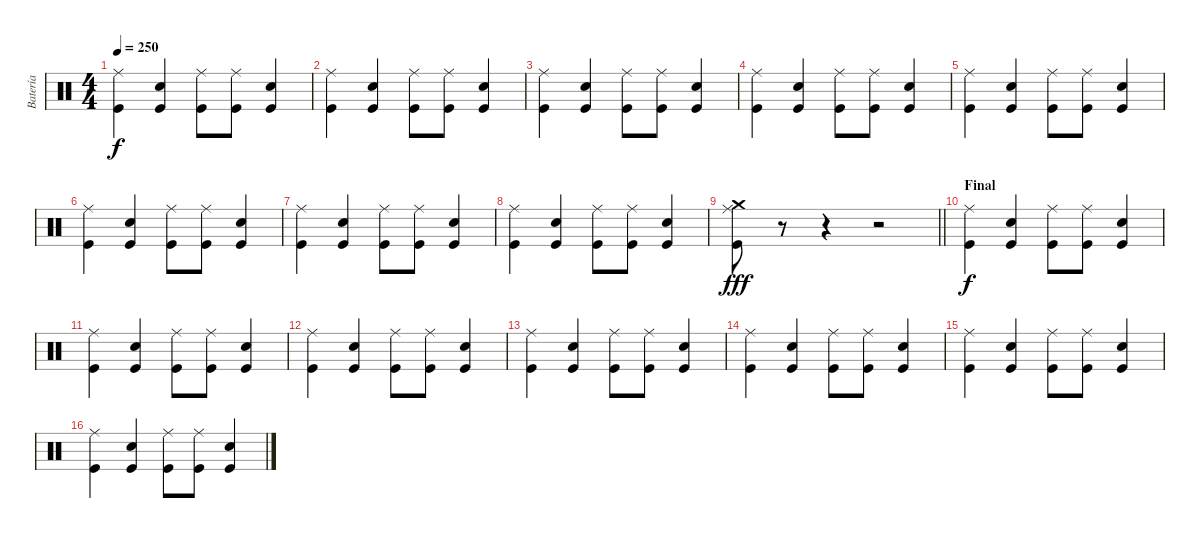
\track ("Batería" "Batería") {instrument percussion}
\staff {score}
\articulation defaults
\ts (4 4)
\tempo 250
\clef neutral
\ks c
("Ride (middle)" "Kick (hit)").4{dy f} ("Electric Snare (hit)" "Kick (hit)").4 ("Ride (middle)" "Kick (hit)").8 ("Ride (middle)" "Kick (hit)").8 ("Electric Snare (hit)" "Kick (hit)").4 |
("Ride (middle)" "Kick (hit)").4 ("Electric Snare (hit)" "Kick (hit)").4 ("Ride (middle)" "Kick (hit)").8 ("Ride (middle)" "Kick (hit)").8 ("Electric Snare (hit)" "Kick (hit)").4 |
("Ride (middle)" "Kick (hit)").4 ("Electric Snare (hit)" "Kick (hit)").4 ("Ride (middle)" "Kick (hit)").8 ("Ride (middle)" "Kick (hit)").8 ("Electric Snare (hit)" "Kick (hit)").4 |
("Ride (middle)" "Kick (hit)").4 ("Electric Snare (hit)" "Kick (hit)").4 ("Ride (middle)" "Kick (hit)").8 ("Ride (middle)" "Kick (hit)").8 ("Electric Snare (hit)" "Kick (hit)").4 |
("Ride (middle)" "Kick (hit)").4 ("Electric Snare (hit)" "Kick (hit)").4 ("Ride (middle)" "Kick (hit)").8 ("Ride (middle)" "Kick (hit)").8 ("Electric Snare (hit)" "Kick (hit)").4 |
("Ride (middle)" "Kick (hit)").4 ("Electric Snare (hit)" "Kick (hit)").4 ("Ride (middle)" "Kick (hit)").8 ("Ride (middle)" "Kick (hit)").8 ("Electric Snare (hit)" "Kick (hit)").4 |
("Ride (middle)" "Kick (hit)").4 ("Electric Snare (hit)" "Kick (hit)").4 ("Ride (middle)" "Kick (hit)").8 ("Ride (middle)" "Kick (hit)").8 ("Electric Snare (hit)" "Kick (hit)").4 |
("Ride (middle)" "Kick (hit)").4 ("Electric Snare (hit)" "Kick (hit)").4 ("Ride (middle)" "Kick (hit)").8 ("Ride (middle)" "Kick (hit)").8 ("Electric Snare (hit)" "Kick (hit)").4 |
\barLineRight lightlight
("Ride (middle)" "Crash medium (hit)" "Kick (hit)").8{dy fff} r.8 r.4 r.2 |
\section ("" "Final")
("Ride (middle)" "Kick (hit)").4{dy f} ("Electric Snare (hit)" "Kick (hit)").4 ("Ride (middle)" "Kick (hit)").8 ("Ride (middle)" "Kick (hit)").8 ("Electric Snare (hit)" "Kick (hit)").4 |
("Ride (middle)" "Kick (hit)").4 ("Electric Snare (hit)" "Kick (hit)").4 ("Ride (middle)" "Kick (hit)").8 ("Ride (middle)" "Kick (hit)").8 ("Electric Snare (hit)" "Kick (hit)").4 |
("Ride (middle)" "Kick (hit)").4 ("Electric Snare (hit)" "Kick (hit)").4 ("Ride (middle)" "Kick (hit)").8 ("Ride (middle)" "Kick (hit)").8 ("Electric Snare (hit)" "Kick (hit)").4 |
("Ride (middle)" "Kick (hit)").4 ("Electric Snare (hit)" "Kick (hit)").4 ("Ride (middle)" "Kick (hit)").8 ("Ride (middle)" "Kick (hit)").8 ("Electric Snare (hit)" "Kick (hit)").4 |
("Ride (middle)" "Kick (hit)").4 ("Electric Snare (hit)" "Kick (hit)").4 ("Ride (middle)" "Kick (hit)").8 ("Ride (middle)" "Kick (hit)").8 ("Electric Snare (hit)" "Kick (hit)").4 |
("Ride (middle)" "Kick (hit)").4 ("Electric Snare (hit)" "Kick (hit)").4 ("Ride (middle)" "Kick (hit)").8 ("Ride (middle)" "Kick (hit)").8 ("Electric Snare (hit)" "Kick (hit)").4 |
("Ride (middle)" "Kick (hit)").4 ("Electric Snare (hit)" "Kick (hit)").4 ("Ride (middle)" "Kick (hit)").8 ("Ride (middle)" "Kick (hit)").8 ("Electric Snare (hit)" "Kick (hit)").4
